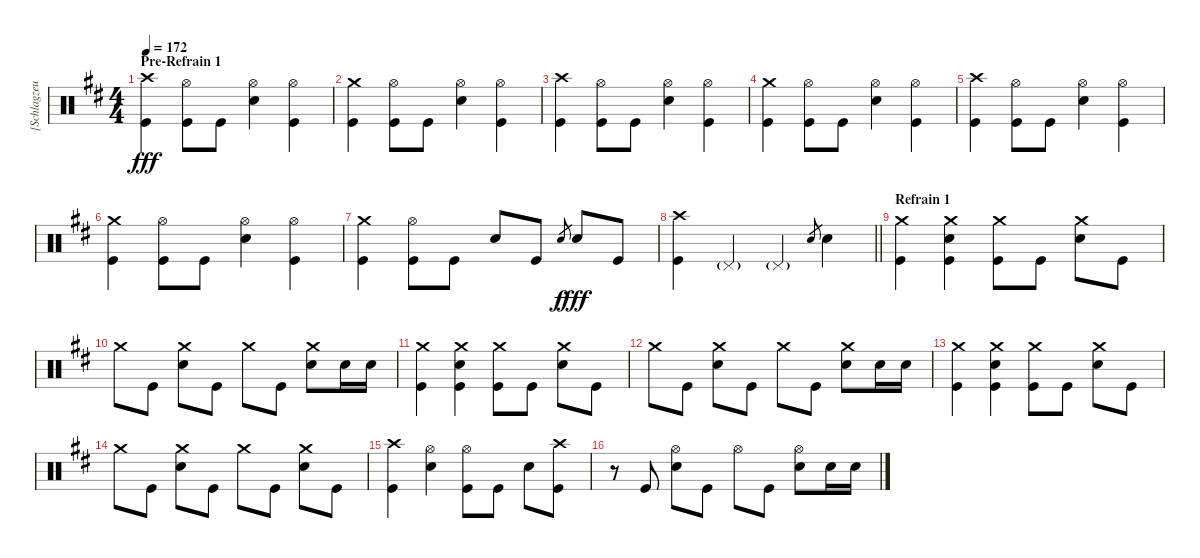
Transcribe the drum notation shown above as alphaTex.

\track ("[Schlagzeug]" "[Schlagzeu") {instrument percussion}
\staff {score}
\articulation defaults
\ts (4 4)
\section ("" "Pre-Refrain 1")
\tempo 172
\clef neutral
\ks d
("Crash high (hit)" "Kick (hit)").4{dy fff} ("Hi-Hat (open)" "Kick (hit)").8 "Kick (hit)".8 ("Hi-Hat (open)" "Electric Snare (hit)").4 ("Hi-Hat (open)" "Kick (hit)").4 |
("Crash medium (hit)" "Kick (hit)").4 ("Hi-Hat (open)" "Kick (hit)").8 "Kick (hit)".8 ("Hi-Hat (open)" "Electric Snare (hit)").4 ("Hi-Hat (open)" "Kick (hit)").4 |
("Crash high (hit)" "Kick (hit)").4 ("Hi-Hat (open)" "Kick (hit)").8 "Kick (hit)".8 ("Hi-Hat (open)" "Electric Snare (hit)").4 ("Hi-Hat (open)" "Kick (hit)").4 |
("Crash medium (hit)" "Kick (hit)").4 ("Hi-Hat (open)" "Kick (hit)").8 "Kick (hit)".8 ("Hi-Hat (open)" "Electric Snare (hit)").4 ("Hi-Hat (open)" "Kick (hit)").4 |
("Crash high (hit)" "Kick (hit)").4 ("Hi-Hat (open)" "Kick (hit)").8 "Kick (hit)".8 ("Hi-Hat (open)" "Electric Snare (hit)").4 ("Hi-Hat (open)" "Kick (hit)").4 |
("Crash medium (hit)" "Kick (hit)").4 ("Hi-Hat (open)" "Kick (hit)").8 "Kick (hit)".8 ("Hi-Hat (open)" "Electric Snare (hit)").4 ("Hi-Hat (open)" "Kick (hit)").4 |
("Crash medium (hit)" "Kick (hit)").4 ("Hi-Hat (open)" "Kick (hit)").8 "Kick (hit)".8 "Electric Snare (hit)".8 "Kick (hit)".8 "Electric Snare (hit)".8{gr dy f} "Electric Snare (hit)".8{dy fff} "Kick (hit)".8 |
\barLineRight lightlight
("Crash high (hit)" "Kick (hit)").4 "Pedal Hi-Hat (hit)"{g}.4 "Pedal Hi-Hat (hit)"{g}.4 "Electric Snare (hit)".8{gr} "Electric Snare (hit)".4 |
\section ("" "Refrain 1")
("Crash medium (hit)" "Kick (hit)").4 ("Crash medium (hit)" "Electric Snare (hit)" "Kick (hit)").4 ("Crash medium (hit)" "Kick (hit)").8 "Kick (hit)".8 ("Crash medium (hit)" "Electric Snare (hit)").8 "Kick (hit)".8 |
"Crash medium (hit)".8 "Kick (hit)".8 ("Crash medium (hit)" "Electric Snare (hit)").8 "Kick (hit)".8 "Crash medium (hit)".8 "Kick (hit)".8 ("Crash medium (hit)" "Electric Snare (hit)").8 "Electric Snare (hit)".16 "Electric Snare (hit)".16 |
("Crash medium (hit)" "Kick (hit)").4 ("Crash medium (hit)" "Electric Snare (hit)" "Kick (hit)").4 ("Crash medium (hit)" "Kick (hit)").8 "Kick (hit)".8 ("Crash medium (hit)" "Electric Snare (hit)").8 "Kick (hit)".8 |
"Crash medium (hit)".8 "Kick (hit)".8 ("Crash medium (hit)" "Electric Snare (hit)").8 "Kick (hit)".8 "Crash medium (hit)".8 "Kick (hit)".8 ("Crash medium (hit)" "Electric Snare (hit)").8 "Electric Snare (hit)".16 "Electric Snare (hit)".16 |
("Crash medium (hit)" "Kick (hit)").4 ("Crash medium (hit)" "Electric Snare (hit)" "Kick (hit)").4 ("Crash medium (hit)" "Kick (hit)").8 "Kick (hit)".8 ("Crash medium (hit)" "Electric Snare (hit)").8 "Kick (hit)".8 |
"Crash medium (hit)".8 "Kick (hit)".8 ("Crash medium (hit)" "Electric Snare (hit)").8 "Kick (hit)".8 "Crash medium (hit)".8 "Kick (hit)".8 ("Crash medium (hit)" "Electric Snare (hit)").8 "Kick (hit)".8 |
("Crash high (hit)" "Kick (hit)").4 ("Hi-Hat (open)" "Electric Snare (hit)").4 ("Hi-Hat (open)" "Kick (hit)").8 "Kick (hit)".8 "Electric Snare (hit)".8 ("Crash high (hit)" "Kick (hit)").8 |
r.8 "Kick (hit)".8 ("Hi-Hat (open)" "Electric Snare (hit)").8 "Kick (hit)".8 "Hi-Hat (open)".8 "Kick (hit)".8 ("Hi-Hat (open)" "Electric Snare (hit)").8 "Electric Snare (hit)".16 "Electric Snare (hit)".16
